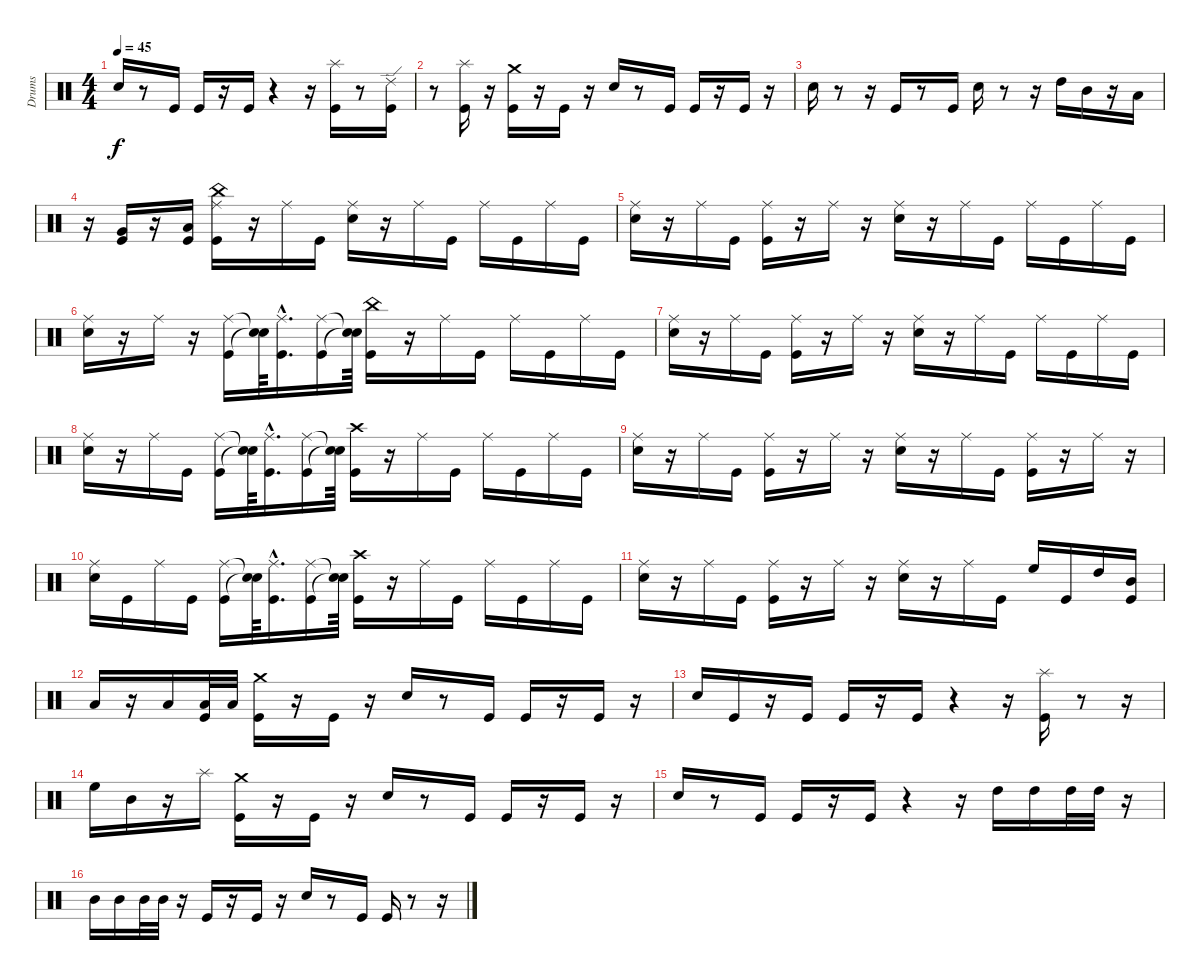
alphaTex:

\track ("Drums" "Drums") {instrument percussion}
\staff {score}
\articulation defaults
\ts (4 4)
\tempo 45
\clef neutral
\ks c "Electric Snare (hit)".16{dy f}
r.8 "Kick (hit)".16 "Kick (hit)".16 r.16 "Kick (hit)".16 r.4 r.16 ("Splash (hit)" "Kick (hit)").16 r.8 ("Ride (edge) 2" "Kick (hit)").16 |
r.8 ("Splash (hit)" "Kick (hit)").16 r.16 ("Crash medium (hit)" "Kick (hit)").16 r.16 "Kick (hit)".16 r.16 "Electric Snare (hit)".16 r.8 "Kick (hit)".16 "Kick (hit)".16 r.16 "Kick (hit)".16 r.16 |
"Electric Snare (hit)".16 r.8 r.16 "Kick (hit)".16 r.8 "Kick (hit)".16 "Electric Snare (hit)".16 r.8 r.16 "High Tom (hit)".16 "Mid Tom (hit)".16 r.16 "Low Tom (hit)".16 |
r.16 ("Very Low Tom (hit)" "Kick (hit)").16 r.16 ("Low Floor Tom (hit)" "Kick (hit)").16 ("Ride (middle)" "China (hit)" "Kick (hit)").16 r.16 "Ride (middle)".16 "Kick (hit)".16 ("Ride (middle)" "Electric Snare (hit)").16 r.16 "Ride (middle)".16 "Kick (hit)".16 "Ride (middle)".16 "Kick (hit)".16 "Ride (middle)".16 "Kick (hit)".16 |
("Ride (middle)" "Electric Snare (hit)").16 r.16 "Ride (middle)".16 "Kick (hit)".16 ("Ride (middle)" "Kick (hit)").16 r.16 "Ride (middle)".16 r.16 ("Ride (middle)" "Electric Snare (hit)").16 r.16 "Ride (middle)".16 "Kick (hit)".16 "Ride (middle)".16 "Kick (hit)".16 "Ride (middle)".16 "Kick (hit)".16 |
("Ride (middle)" "Electric Snare (hit)").16 r.16 "Ride (middle)".16 r.16 ("Ride (middle)" "Kick (hit)").16 ("Snare (hit)"{t} "Snare (hit)"{t}).64 ("Ride (middle)"{hac} "Kick (hit)"{hac}).16{d} ("Ride (middle)" "Kick (hit)").16 ("Snare (hit)"{t} "Snare (hit)"{t}).64 ("China (hit)" "Kick (hit)").16 r.16 "Ride (middle)".16 "Kick (hit)".16 "Ride (middle)".16 "Kick (hit)".16 "Ride (middle)".16 "Kick (hit)".16 |
("Ride (middle)" "Electric Snare (hit)").16 r.16 "Ride (middle)".16 "Kick (hit)".16 ("Ride (middle)" "Kick (hit)").16 r.16 "Ride (middle)".16 r.16 ("Ride (middle)" "Electric Snare (hit)").16 r.16 "Ride (middle)".16 "Kick (hit)".16 "Ride (middle)".16 "Kick (hit)".16 "Ride (middle)".16 "Kick (hit)".16 |
("Ride (middle)" "Electric Snare (hit)").16 r.16 "Ride (middle)".16 "Kick (hit)".16 ("Ride (middle)" "Kick (hit)").16 ("Snare (hit)"{t} "Snare (hit)"{t}).64 ("Ride (middle)"{hac} "Kick (hit)"{hac}).16{d} ("Ride (middle)" "Kick (hit)").16 ("Snare (hit)"{t} "Snare (hit)"{t}).64 ("Crash high (hit)" "Kick (hit)").16 r.16 "Ride (middle)".16 "Kick (hit)".16 "Ride (middle)".16 "Kick (hit)".16 "Ride (middle)".16 "Kick (hit)".16 |
("Ride (middle)" "Electric Snare (hit)").16 r.16 "Ride (middle)".16 "Kick (hit)".16 ("Ride (middle)" "Kick (hit)").16 r.16 "Ride (middle)".16 r.16 ("Ride (middle)" "Electric Snare (hit)").16 r.16 "Ride (middle)".16 "Kick (hit)".16 ("Ride (middle)" "Kick (hit)").16 r.16 "Ride (middle)".16 r.16 |
("Ride (middle)" "Electric Snare (hit)").16 "Kick (hit)".16 "Ride (middle)".16 "Kick (hit)".16 ("Ride (middle)" "Kick (hit)").16 ("Snare (hit)"{t} "Snare (hit)"{t}).64 ("Ride (middle)"{hac} "Kick (hit)"{hac}).16{d} ("Ride (middle)" "Kick (hit)").16 ("Snare (hit)"{t} "Snare (hit)"{t}).64 ("Crash high (hit)" "Kick (hit)").16 r.16 "Ride (middle)".16 "Kick (hit)".16 "Ride (middle)".16 "Kick (hit)".16 "Ride (middle)".16 "Kick (hit)".16 |
("Ride (middle)" "Electric Snare (hit)").16 r.16 "Ride (middle)".16 "Kick (hit)".16 ("Ride (middle)" "Kick (hit)").16 r.16 "Ride (middle)".16 r.16 ("Ride (middle)" "Electric Snare (hit)").16 r.16 "Ride (middle)".16 "Kick (hit)".16 "High Floor Tom (hit)".16 "Kick (hit)".16 "High Tom (hit)".16 ("Mid Tom (hit)" "Kick (hit)").16 |
"Low Tom (hit)".16 r.16 "Low Tom (hit)".16 ("Low Tom (hit)" "Kick (hit)").32 "Low Tom (hit)".32 ("Crash medium (hit)" "Kick (hit)").16 r.16 "Kick (hit)".16 r.16 "Electric Snare (hit)".16 r.8 "Kick (hit)".16 "Kick (hit)".16 r.16 "Kick (hit)".16 r.16 |
"Electric Snare (hit)".16 "Kick (hit)".16 r.16 "Kick (hit)".16 "Kick (hit)".16 r.16 "Kick (hit)".16 r.4 r.16 ("Splash (hit)" "Kick (hit)").16 r.8 r.16 |
"High Floor Tom (hit)".16 "Mid Tom (hit)".16 r.16 "Splash (hit)".16 ("Crash medium (hit)" "Kick (hit)").16 r.16 "Kick (hit)".16 r.16 "Electric Snare (hit)".16 r.8 "Kick (hit)".16 "Kick (hit)".16 r.16 "Kick (hit)".16 r.16 |
"Electric Snare (hit)".16 r.8 "Kick (hit)".16 "Kick (hit)".16 r.16 "Kick (hit)".16 r.4 r.16 "High Tom (hit)".16 "High Tom (hit)".16 "High Tom (hit)".32 "High Tom (hit)".32 r.16 |
"Mid Tom (hit)".16 "Mid Tom (hit)".16 "Mid Tom (hit)".32 "Mid Tom (hit)".32 r.16 "Kick (hit)".16 r.16 "Kick (hit)".16 r.16 "Electric Snare (hit)".16 r.8 "Kick (hit)".16 "Kick (hit)".16 r.8 r.16
